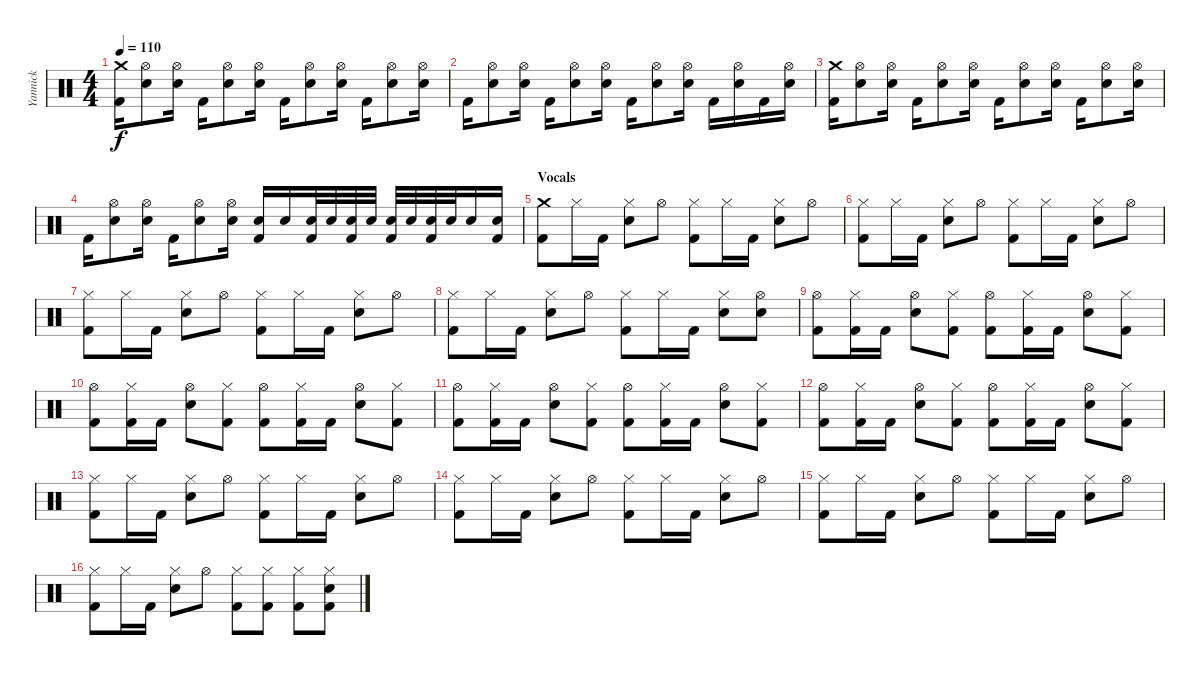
\track ("Yannick" "Yannick") {instrument percussion}
\staff {score}
\articulation defaults
\ts (4 4)
\tempo 110
\clef neutral
\ks c
("Crash medium (hit)" "Kick (hit) 2").16{dy f} ("Hi-Hat (open)" "Electric Snare (hit)").8 ("Hi-Hat (open)" "Electric Snare (hit)").16 "Kick (hit) 2".16 ("Hi-Hat (open)" "Electric Snare (hit)").8 ("Hi-Hat (open)" "Electric Snare (hit)").16 "Kick (hit) 2".16 ("Hi-Hat (open)" "Electric Snare (hit)").8 ("Hi-Hat (open)" "Electric Snare (hit)").16 "Kick (hit) 2".16 ("Hi-Hat (open)" "Electric Snare (hit)").8 ("Hi-Hat (open)" "Electric Snare (hit)").16 |
"Kick (hit) 2".16 ("Hi-Hat (open)" "Electric Snare (hit)").8 ("Hi-Hat (open)" "Electric Snare (hit)").16 "Kick (hit) 2".16 ("Hi-Hat (open)" "Electric Snare (hit)").8 ("Hi-Hat (open)" "Electric Snare (hit)").16 "Kick (hit) 2".16 ("Hi-Hat (open)" "Electric Snare (hit)").8 ("Hi-Hat (open)" "Electric Snare (hit)").16 "Kick (hit) 2".16 ("Hi-Hat (open)" "Electric Snare (hit)").16 "Kick (hit) 2".16 ("Hi-Hat (open)" "Electric Snare (hit)").16 |
("Crash medium (hit)" "Kick (hit) 2").16 ("Hi-Hat (open)" "Electric Snare (hit)").8 ("Hi-Hat (open)" "Electric Snare (hit)").16 "Kick (hit) 2".16 ("Hi-Hat (open)" "Electric Snare (hit)").8 ("Hi-Hat (open)" "Electric Snare (hit)").16 "Kick (hit) 2".16 ("Hi-Hat (open)" "Electric Snare (hit)").8 ("Hi-Hat (open)" "Electric Snare (hit)").16 "Kick (hit) 2".16 ("Hi-Hat (open)" "Electric Snare (hit)").8 ("Hi-Hat (open)" "Electric Snare (hit)").16 |
"Kick (hit) 2".16 ("Hi-Hat (open)" "Electric Snare (hit)").8 ("Hi-Hat (open)" "Electric Snare (hit)").16 "Kick (hit) 2".16 ("Hi-Hat (open)" "Electric Snare (hit)").8 ("Hi-Hat (open)" "Electric Snare (hit)").16 ("Electric Snare (hit)" "Kick (hit) 2").16 "Electric Snare (hit)".16 ("Electric Snare (hit)" "Kick (hit) 2").32 "Electric Snare (hit)".32 ("Electric Snare (hit)" "Kick (hit) 2").32 "Electric Snare (hit)".32 ("Electric Snare (hit)" "Kick (hit) 2").32 "Electric Snare (hit)".32 ("Electric Snare (hit)" "Kick (hit) 2").32 "Electric Snare (hit)".32 "Electric Snare (hit)".16 ("Electric Snare (hit)" "Kick (hit) 2").16 |
\section ("" "Vocals")
("Crash medium (hit)" "Kick (hit) 2").8 "Hi-Hat (closed)".16 "Kick (hit) 2".16 ("Hi-Hat (closed)" "Electric Snare (hit)").8 "Hi-Hat (open)".8 ("Hi-Hat (closed)" "Kick (hit) 2").8 "Hi-Hat (closed)".16 "Kick (hit) 2".16 ("Hi-Hat (closed)" "Electric Snare (hit)").8 "Hi-Hat (open)".8 |
("Hi-Hat (closed)" "Kick (hit) 2").8 "Hi-Hat (closed)".16 "Kick (hit) 2".16 ("Hi-Hat (closed)" "Electric Snare (hit)").8 "Hi-Hat (open)".8 ("Hi-Hat (closed)" "Kick (hit) 2").8 "Hi-Hat (closed)".16 "Kick (hit) 2".16 ("Hi-Hat (closed)" "Electric Snare (hit)").8 "Hi-Hat (open)".8 |
("Hi-Hat (closed)" "Kick (hit) 2").8 "Hi-Hat (closed)".16 "Kick (hit) 2".16 ("Hi-Hat (closed)" "Electric Snare (hit)").8 "Hi-Hat (open)".8 ("Hi-Hat (closed)" "Kick (hit) 2").8 "Hi-Hat (closed)".16 "Kick (hit) 2".16 ("Hi-Hat (closed)" "Electric Snare (hit)").8 "Hi-Hat (open)".8 |
("Hi-Hat (closed)" "Kick (hit) 2").8 "Hi-Hat (closed)".16 "Kick (hit) 2".16 ("Hi-Hat (closed)" "Electric Snare (hit)").8 "Hi-Hat (open)".8 ("Hi-Hat (closed)" "Kick (hit) 2").8 "Hi-Hat (closed)".16 "Kick (hit) 2".16 ("Hi-Hat (closed)" "Electric Snare (hit)").8 ("Hi-Hat (open)" "Electric Snare (hit)").8 |
("Hi-Hat (open)" "Kick (hit) 2").8 ("Hi-Hat (closed)" "Kick (hit) 2").16 "Kick (hit) 2".16 ("Hi-Hat (open)" "Electric Snare (hit)").8 ("Hi-Hat (closed)" "Kick (hit) 2").8 ("Hi-Hat (open)" "Kick (hit) 2").8 ("Hi-Hat (closed)" "Kick (hit) 2").16 "Kick (hit) 2".16 ("Hi-Hat (open)" "Electric Snare (hit)").8 ("Hi-Hat (closed)" "Kick (hit) 2").8 |
("Hi-Hat (open)" "Kick (hit) 2").8 ("Hi-Hat (closed)" "Kick (hit) 2").16 "Kick (hit) 2".16 ("Hi-Hat (open)" "Electric Snare (hit)").8 ("Hi-Hat (closed)" "Kick (hit) 2").8 ("Hi-Hat (open)" "Kick (hit) 2").8 ("Hi-Hat (closed)" "Kick (hit) 2").16 "Kick (hit) 2".16 ("Hi-Hat (open)" "Electric Snare (hit)").8 ("Hi-Hat (closed)" "Kick (hit) 2").8 |
("Hi-Hat (open)" "Kick (hit) 2").8 ("Hi-Hat (closed)" "Kick (hit) 2").16 "Kick (hit) 2".16 ("Hi-Hat (open)" "Electric Snare (hit)").8 ("Hi-Hat (closed)" "Kick (hit) 2").8 ("Hi-Hat (open)" "Kick (hit) 2").8 ("Hi-Hat (closed)" "Kick (hit) 2").16 "Kick (hit) 2".16 ("Hi-Hat (open)" "Electric Snare (hit)").8 ("Hi-Hat (closed)" "Kick (hit) 2").8 |
("Hi-Hat (open)" "Kick (hit) 2").8 ("Hi-Hat (closed)" "Kick (hit) 2").16 "Kick (hit) 2".16 ("Hi-Hat (open)" "Electric Snare (hit)").8 ("Hi-Hat (closed)" "Kick (hit) 2").8 ("Hi-Hat (open)" "Kick (hit) 2").8 ("Hi-Hat (closed)" "Kick (hit) 2").16 "Kick (hit) 2".16 ("Hi-Hat (open)" "Electric Snare (hit)").8 ("Hi-Hat (closed)" "Kick (hit) 2").8 |
("Hi-Hat (closed)" "Kick (hit) 2").8 "Hi-Hat (closed)".16 "Kick (hit) 2".16 ("Hi-Hat (closed)" "Electric Snare (hit)").8 "Hi-Hat (open)".8 ("Hi-Hat (closed)" "Kick (hit) 2").8 "Hi-Hat (closed)".16 "Kick (hit) 2".16 ("Hi-Hat (closed)" "Electric Snare (hit)").8 "Hi-Hat (open)".8 |
("Hi-Hat (closed)" "Kick (hit) 2").8 "Hi-Hat (closed)".16 "Kick (hit) 2".16 ("Hi-Hat (closed)" "Electric Snare (hit)").8 "Hi-Hat (open)".8 ("Hi-Hat (closed)" "Kick (hit) 2").8 "Hi-Hat (closed)".16 "Kick (hit) 2".16 ("Hi-Hat (closed)" "Electric Snare (hit)").8 "Hi-Hat (open)".8 |
("Hi-Hat (closed)" "Kick (hit) 2").8 "Hi-Hat (closed)".16 "Kick (hit) 2".16 ("Hi-Hat (closed)" "Electric Snare (hit)").8 "Hi-Hat (open)".8 ("Hi-Hat (closed)" "Kick (hit) 2").8 "Hi-Hat (closed)".16 "Kick (hit) 2".16 ("Hi-Hat (closed)" "Electric Snare (hit)").8 "Hi-Hat (open)".8 |
("Hi-Hat (closed)" "Kick (hit) 2").8 "Hi-Hat (closed)".16 "Kick (hit) 2".16 ("Hi-Hat (closed)" "Electric Snare (hit)").8 "Hi-Hat (open)".8 ("Hi-Hat (closed)" "Kick (hit) 2").8 ("Hi-Hat (closed)" "Kick (hit) 2").8 ("Hi-Hat (closed)" "Kick (hit) 2").8 ("Hi-Hat (closed)" "Electric Snare (hit)" "Kick (hit) 2").8
